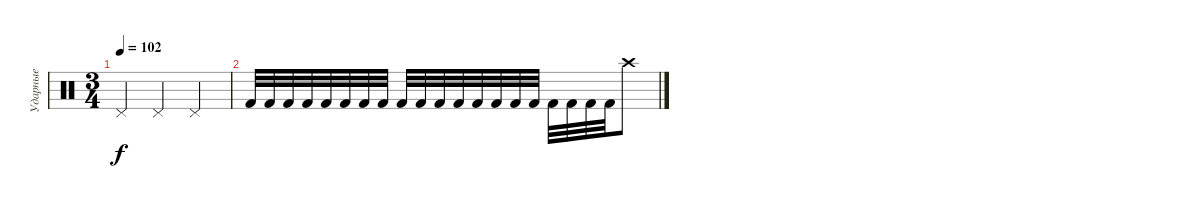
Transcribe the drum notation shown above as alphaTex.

\track ("Ударные" "Ударные") {instrument percussion}
\staff {score}
\articulation defaults
\ts (3 4)
\tempo 102
\clef neutral
\ks c "Pedal Hi-Hat (hit)".4{dy f} "Pedal Hi-Hat (hit)".4 "Pedal Hi-Hat (hit)".4
|
"Kick (hit) 2".32 "Kick (hit) 2".32 "Kick (hit) 2".32 "Kick (hit) 2".32 "Kick (hit) 2".32 "Kick (hit) 2".32 "Kick (hit) 2".32 "Kick (hit) 2".32 "Kick (hit) 2".32 "Kick (hit) 2".32 "Kick (hit) 2".32 "Kick (hit) 2".32 "Kick (hit) 2".32 "Kick (hit) 2".32 "Kick (hit) 2".32 "Kick (hit) 2".32 "Kick (hit) 2".32 "Kick (hit) 2".32 "Kick (hit) 2".32 "Kick (hit) 2".32 "Crash high (hit)".8
